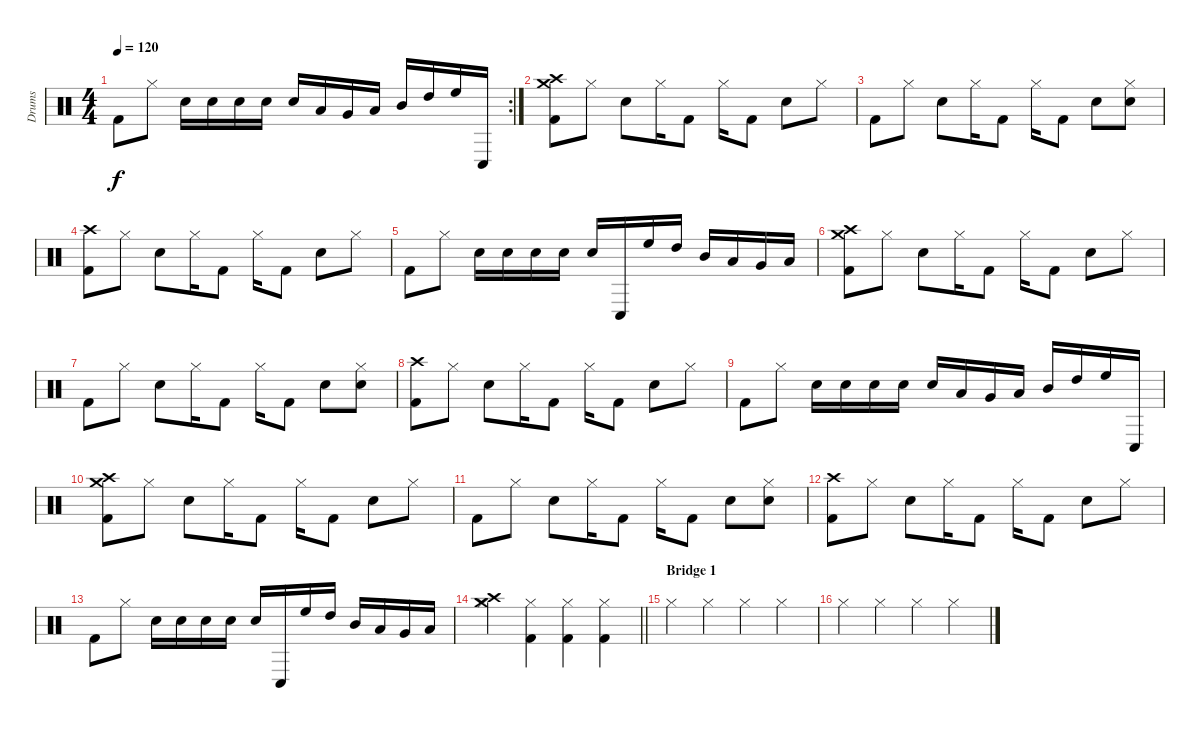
\track ("Drums" "Drums") {instrument percussion}
\staff {score}
\articulation defaults
\rc 2
\ts (4 4)
\tempo 120
\clef neutral
\ks c "Kick (hit) 2".8{dy f} "Hi-Hat (closed)".8 "Snare (hit) 2".16 "Snare (hit) 2".16 "Snare (hit) 2".16 "Snare (hit) 2".16 "Snare (hit) 2".16 "Low Floor Tom (hit)".16 "Very Low Tom (hit)".16 "Low Tom (hit)".16 "Mid Tom (hit)".16 "High Tom (hit)".16 "High Floor Tom (hit)".16 "Conga low (hit)".16
|
("Kick (hit) 2" "Crash medium (hit)" "Crash high (hit)").8 "Hi-Hat (closed)".8 "Snare (hit) 2".8 "Hi-Hat (closed)".16 "Kick (hit) 2".8 "Hi-Hat (closed)".16 "Kick (hit) 2".8 "Snare (hit) 2".8 "Hi-Hat (closed)".8 |
"Kick (hit) 2".8 "Hi-Hat (closed)".8 "Snare (hit) 2".8 "Hi-Hat (closed)".16 "Kick (hit) 2".8 "Hi-Hat (closed)".16 "Kick (hit) 2".8 "Snare (hit) 2".8 ("Snare (hit) 2" "Hi-Hat (closed)").8 |
("Kick (hit) 2" "Crash high (hit)").8 "Hi-Hat (closed)".8 "Snare (hit) 2".8 "Hi-Hat (closed)".16 "Kick (hit) 2".8 "Hi-Hat (closed)".16 "Kick (hit) 2".8 "Snare (hit) 2".8 "Hi-Hat (closed)".8 |
"Kick (hit) 2".8 "Hi-Hat (closed)".8 "Snare (hit) 2".16 "Snare (hit) 2".16 "Snare (hit) 2".16 "Snare (hit) 2".16 "Snare (hit) 2".16 "Conga low (hit)".16 "High Floor Tom (hit)".16 "High Tom (hit)".16 "Mid Tom (hit)".16 "Low Tom (hit)".16 "Very Low Tom (hit)".16 "Low Floor Tom (hit)".16 |
("Kick (hit) 2" "Crash medium (hit)" "Crash high (hit)").8 "Hi-Hat (closed)".8 "Snare (hit) 2".8 "Hi-Hat (closed)".16 "Kick (hit) 2".8 "Hi-Hat (closed)".16 "Kick (hit) 2".8 "Snare (hit) 2".8 "Hi-Hat (closed)".8 |
"Kick (hit) 2".8 "Hi-Hat (closed)".8 "Snare (hit) 2".8 "Hi-Hat (closed)".16 "Kick (hit) 2".8 "Hi-Hat (closed)".16 "Kick (hit) 2".8 "Snare (hit) 2".8 ("Snare (hit) 2" "Hi-Hat (closed)").8 |
("Kick (hit) 2" "Crash high (hit)").8 "Hi-Hat (closed)".8 "Snare (hit) 2".8 "Hi-Hat (closed)".16 "Kick (hit) 2".8 "Hi-Hat (closed)".16 "Kick (hit) 2".8 "Snare (hit) 2".8 "Hi-Hat (closed)".8 |
"Kick (hit) 2".8 "Hi-Hat (closed)".8 "Snare (hit) 2".16 "Snare (hit) 2".16 "Snare (hit) 2".16 "Snare (hit) 2".16 "Snare (hit) 2".16 "Low Floor Tom (hit)".16 "Very Low Tom (hit)".16 "Low Tom (hit)".16 "Mid Tom (hit)".16 "High Tom (hit)".16 "High Floor Tom (hit)".16 "Conga low (hit)".16 |
("Kick (hit) 2" "Crash medium (hit)" "Crash high (hit)").8 "Hi-Hat (closed)".8 "Snare (hit) 2".8 "Hi-Hat (closed)".16 "Kick (hit) 2".8 "Hi-Hat (closed)".16 "Kick (hit) 2".8 "Snare (hit) 2".8 "Hi-Hat (closed)".8 |
"Kick (hit) 2".8 "Hi-Hat (closed)".8 "Snare (hit) 2".8 "Hi-Hat (closed)".16 "Kick (hit) 2".8 "Hi-Hat (closed)".16 "Kick (hit) 2".8 "Snare (hit) 2".8 ("Snare (hit) 2" "Hi-Hat (closed)").8 |
("Kick (hit) 2" "Crash high (hit)").8 "Hi-Hat (closed)".8 "Snare (hit) 2".8 "Hi-Hat (closed)".16 "Kick (hit) 2".8 "Hi-Hat (closed)".16 "Kick (hit) 2".8 "Snare (hit) 2".8 "Hi-Hat (closed)".8 |
"Kick (hit) 2".8 "Hi-Hat (closed)".8 "Snare (hit) 2".16 "Snare (hit) 2".16 "Snare (hit) 2".16 "Snare (hit) 2".16 "Snare (hit) 2".16 "Conga low (hit)".16 "High Floor Tom (hit)".16 "High Tom (hit)".16 "Mid Tom (hit)".16 "Low Tom (hit)".16 "Very Low Tom (hit)".16 "Low Floor Tom (hit)".16 |
\barLineRight lightlight
("Hi-Hat (closed)" "Crash medium (hit)" "Crash high (hit)").4 ("Kick (hit) 2" "Hi-Hat (closed)").4 ("Kick (hit) 2" "Hi-Hat (closed)").4 ("Kick (hit) 2" "Hi-Hat (closed)").4 |
\section ("" "Bridge 1")
"Hi-Hat (closed)".4 "Hi-Hat (closed)".4 "Hi-Hat (closed)".4 "Hi-Hat (closed)".4 |
"Hi-Hat (closed)".4 "Hi-Hat (closed)".4 "Hi-Hat (closed)".4 "Hi-Hat (closed)".4
